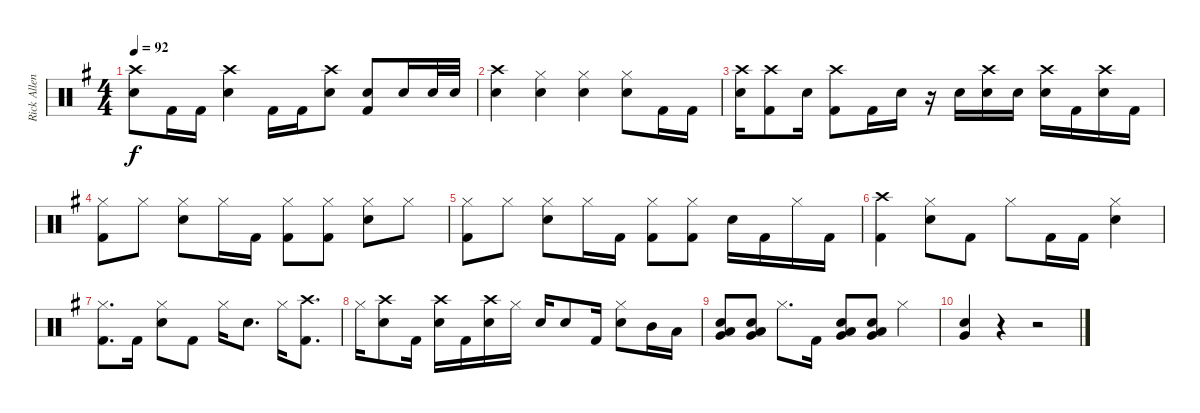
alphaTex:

\track ("Rick Allen" "Rick Allen") {instrument percussion}
\staff {score}
\articulation defaults
\ts (4 4)
\tempo 92
\clef neutral
\ks eminor
("Crash high (hit)" "Electric Snare (hit)").8{dy f} "Kick (hit) 2".16 "Kick (hit) 2".16 ("Crash high (hit)" "Electric Snare (hit)").4 "Kick (hit) 2".16 "Kick (hit) 2".16 ("Crash high (hit)" "Electric Snare (hit)").8 ("Electric Snare (hit)" "Kick (hit) 2").8 "Electric Snare (hit)".16 "Electric Snare (hit)".32 "Electric Snare (hit)".32 |
("Crash high (hit)" "Electric Snare (hit)").4 ("Hi-Hat (closed)" "Electric Snare (hit)").4 ("Hi-Hat (closed)" "Electric Snare (hit)").4 ("Hi-Hat (closed)" "Electric Snare (hit)").8 "Kick (hit) 2".16 "Kick (hit) 2".16 |
("Crash high (hit)" "Electric Snare (hit)").16 ("Crash high (hit)" "Kick (hit) 2").8 "Electric Snare (hit)".16 ("Crash high (hit)" "Kick (hit) 2").8 "Kick (hit) 2".16 "Electric Snare (hit)".16 r.16 "Electric Snare (hit)".16 ("Crash high (hit)" "Electric Snare (hit)").16 "Electric Snare (hit)".16 ("Crash high (hit)" "Electric Snare (hit)").16 "Kick (hit) 2".16 ("Crash high (hit)" "Electric Snare (hit)").16 "Kick (hit) 2".16 |
("Hi-Hat (closed)" "Kick (hit) 2").8 "Hi-Hat (closed)".8 ("Hi-Hat (closed)" "Electric Snare (hit)").8 "Hi-Hat (closed)".16 "Kick (hit) 2".16 ("Hi-Hat (closed)" "Kick (hit) 2").8 ("Hi-Hat (closed)" "Kick (hit) 2").8 ("Hi-Hat (closed)" "Electric Snare (hit)").8 "Hi-Hat (closed)".8 |
("Hi-Hat (closed)" "Kick (hit) 2").8 "Hi-Hat (closed)".8 ("Hi-Hat (closed)" "Electric Snare (hit)").8 "Hi-Hat (closed)".16 "Kick (hit) 2".16 ("Hi-Hat (closed)" "Kick (hit) 2").8 ("Hi-Hat (closed)" "Kick (hit) 2").8 "Electric Snare (hit)".16 "Kick (hit) 2".16 "Hi-Hat (closed)".16 "Kick (hit) 2".16 |
("Crash high (hit)" "Kick (hit) 2").4 ("Hi-Hat (closed)" "Electric Snare (hit)").8 "Kick (hit) 2".8 "Hi-Hat (closed)".8 "Kick (hit) 2".16 "Kick (hit) 2".16 ("Hi-Hat (closed)" "Electric Snare (hit)").4 |
("Hi-Hat (closed)" "Kick (hit) 2").8{d} "Kick (hit) 2".16 ("Hi-Hat (closed)" "Electric Snare (hit)").8 "Kick (hit) 2".8 "Hi-Hat (closed)".16 "Electric Snare (hit)".8{d} "Hi-Hat (closed)".16 ("Crash high (hit)" "Kick (hit) 2").8{d} |
"Hi-Hat (closed)".16 ("Crash high (hit)" "Electric Snare (hit)").8 "Kick (hit) 2".16 ("Crash high (hit)" "Electric Snare (hit)").16 "Kick (hit) 2".16 ("Crash high (hit)" "Electric Snare (hit)").16 "Hi-Hat (closed)".16 "Electric Snare (hit)".16 "Electric Snare (hit)".8 "Kick (hit) 2".16 ("Hi-Hat (closed)" "Electric Snare (hit)").8 "Mid Tom (hit)".16 "Low Tom (hit)".16 |
("Low Tom (hit)" "Electric Snare (hit)" "Very Low Tom (hit)").8 ("Low Tom (hit)" "Electric Snare (hit)" "Very Low Tom (hit)").8 "Hi-Hat (closed)".8{d} "Kick (hit) 2".16 ("Low Tom (hit)" "Electric Snare (hit)" "Very Low Tom (hit)").8 ("Low Tom (hit)" "Electric Snare (hit)" "Very Low Tom (hit)").8 "Hi-Hat (closed)".4 |
("Electric Snare (hit)" "Very Low Tom (hit)").4 r.4 r.2
